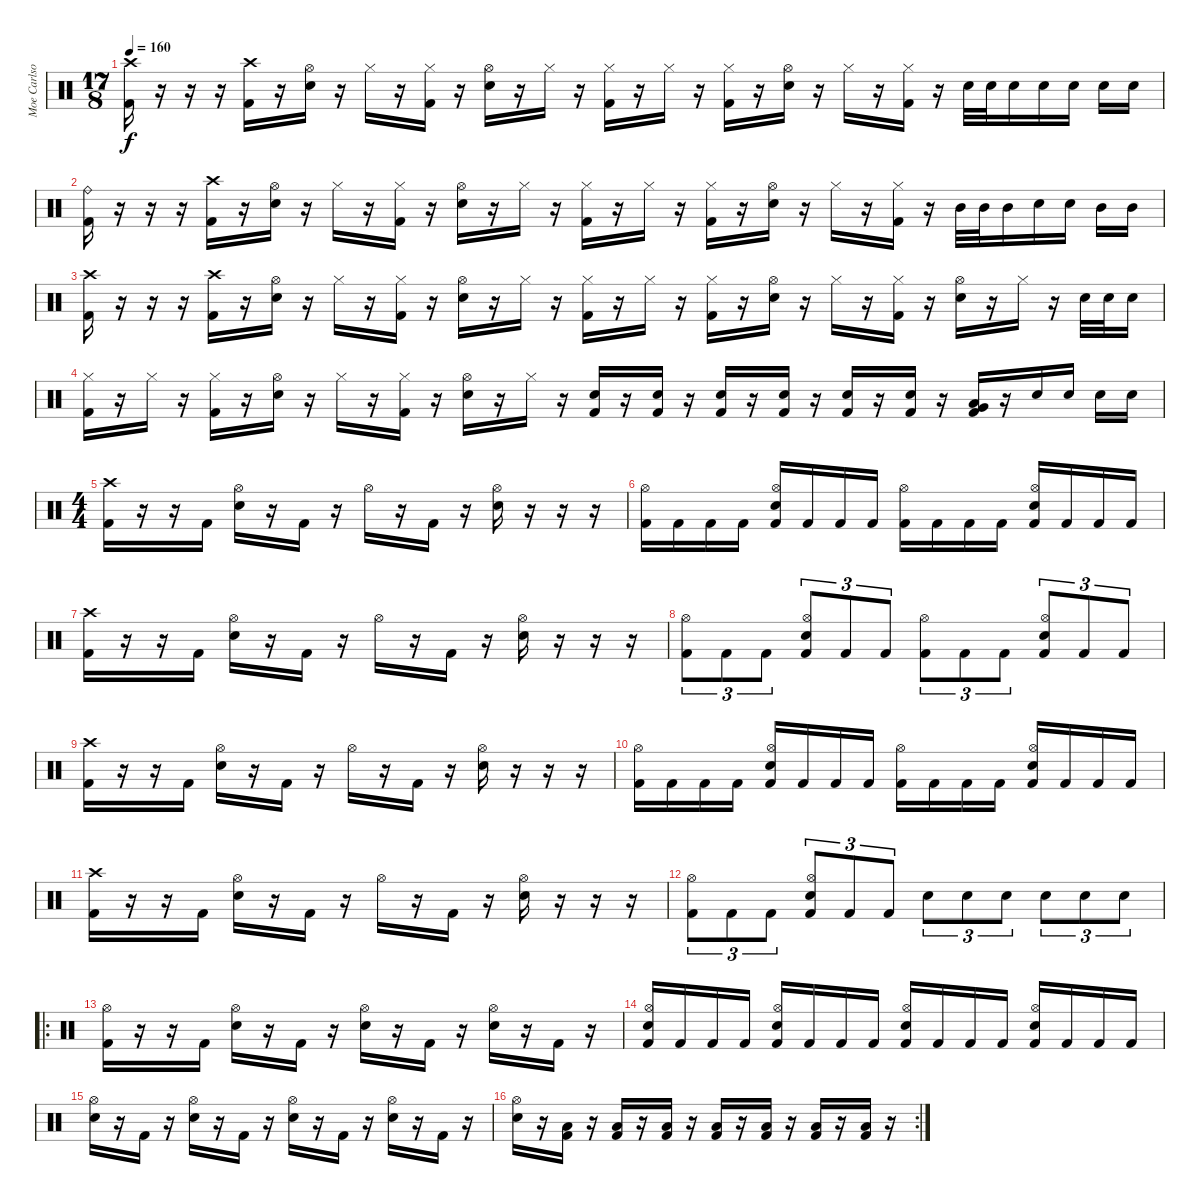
\track ("Moe Carlson" "Moe Carlso") {instrument percussion}
\staff {score}
\articulation defaults
\ts (17 8)
\tempo 160
\clef neutral
\ks c
("Crash high (hit)" "Kick (hit) 2").16{dy f} r.16 r.16 r.16 ("Crash high (hit)" "Kick (hit) 2").16 r.16 ("Hi-Hat (open)" "Electric Snare (hit)").16 r.16 "Hi-Hat (closed)".16 r.16 ("Hi-Hat (closed)" "Kick (hit) 2").16 r.16 ("Hi-Hat (open)" "Electric Snare (hit)").16 r.16 "Hi-Hat (closed)".16 r.16 ("Hi-Hat (closed)" "Kick (hit) 2").16 r.16 "Hi-Hat (closed)".16 r.16 ("Hi-Hat (closed)" "Kick (hit) 2").16 r.16 ("Hi-Hat (open)" "Electric Snare (hit)").16 r.16 "Hi-Hat (closed)".16 r.16 ("Hi-Hat (closed)" "Kick (hit) 2").16 r.16 "Electric Snare (hit)".32 "Electric Snare (hit)".32 "Electric Snare (hit)".16 "Electric Snare (hit)".16 "Electric Snare (hit)".16 "Electric Snare (hit)".16 "Electric Snare (hit)".16 |
("Ride (bell)" "Kick (hit) 2").16 r.16 r.16 r.16 ("Crash high (hit)" "Kick (hit) 2").16 r.16 ("Hi-Hat (open)" "Electric Snare (hit)").16 r.16 "Hi-Hat (closed)".16 r.16 ("Hi-Hat (closed)" "Kick (hit) 2").16 r.16 ("Hi-Hat (open)" "Electric Snare (hit)").16 r.16 "Hi-Hat (closed)".16 r.16 ("Hi-Hat (closed)" "Kick (hit) 2").16 r.16 "Hi-Hat (closed)".16 r.16 ("Hi-Hat (closed)" "Kick (hit) 2").16 r.16 ("Hi-Hat (open)" "Electric Snare (hit)").16 r.16 "Hi-Hat (closed)".16 r.16 ("Hi-Hat (closed)" "Kick (hit) 2").16 r.16 "Mid Tom (hit)".32 "Mid Tom (hit)".32 "Mid Tom (hit)".16 "Electric Snare (hit)".16 "Electric Snare (hit)".16 "Mid Tom (hit)".16 "Mid Tom (hit)".16 |
("Crash high (hit)" "Kick (hit) 2").16 r.16 r.16 r.16 ("Crash high (hit)" "Kick (hit) 2").16 r.16 ("Hi-Hat (open)" "Electric Snare (hit)").16 r.16 "Hi-Hat (closed)".16 r.16 ("Hi-Hat (closed)" "Kick (hit) 2").16 r.16 ("Hi-Hat (open)" "Electric Snare (hit)").16 r.16 "Hi-Hat (closed)".16 r.16 ("Hi-Hat (closed)" "Kick (hit) 2").16 r.16 "Hi-Hat (closed)".16 r.16 ("Hi-Hat (closed)" "Kick (hit) 2").16 r.16 ("Hi-Hat (open)" "Electric Snare (hit)").16 r.16 "Hi-Hat (closed)".16 r.16 ("Hi-Hat (closed)" "Kick (hit) 2").16 r.16 ("Hi-Hat (open)" "Electric Snare (hit)").16 r.16 "Hi-Hat (closed)".16 r.16 "Electric Snare (hit)".32 "Electric Snare (hit)".32 "Electric Snare (hit)".16 |
("Hi-Hat (closed)" "Kick (hit) 2").16 r.16 "Hi-Hat (closed)".16 r.16 ("Hi-Hat (closed)" "Kick (hit) 2").16 r.16 ("Hi-Hat (open)" "Electric Snare (hit)").16 r.16 "Hi-Hat (closed)".16 r.16 ("Hi-Hat (closed)" "Kick (hit) 2").16 r.16 ("Hi-Hat (open)" "Electric Snare (hit)").16 r.16 "Hi-Hat (closed)".16 r.16 ("Electric Snare (hit)" "Kick (hit) 2").16 r.16 ("Electric Snare (hit)" "Kick (hit) 2").16 r.16 ("Electric Snare (hit)" "Kick (hit) 2").16 r.16 ("Electric Snare (hit)" "Kick (hit) 2").16 r.16 ("Electric Snare (hit)" "Kick (hit) 2").16 r.16 ("Electric Snare (hit)" "Kick (hit) 2").16 r.16 ("Low Tom (hit)" "Very Low Tom (hit)" "Kick (hit) 2").16 r.16 "Electric Snare (hit)".16 "Electric Snare (hit)".16 "Electric Snare (hit)".16 "Electric Snare (hit)".16 |
\ts (4 4)
("Crash high (hit)" "Kick (hit) 2").16 r.16 r.16 "Kick (hit) 2".16 ("Hi-Hat (open)" "Electric Snare (hit)").16 r.16 "Kick (hit) 2".16 r.16 "Hi-Hat (open)".16 r.16 "Kick (hit) 2".16 r.16 ("Hi-Hat (open)" "Electric Snare (hit)").16 r.16 r.16 r.16 |
("Hi-Hat (open)" "Kick (hit) 2").16 "Kick (hit) 2".16 "Kick (hit) 2".16 "Kick (hit) 2".16 ("Hi-Hat (open)" "Electric Snare (hit)" "Kick (hit) 2").16 "Kick (hit) 2".16 "Kick (hit) 2".16 "Kick (hit) 2".16 ("Hi-Hat (open)" "Kick (hit) 2").16 "Kick (hit) 2".16 "Kick (hit) 2".16 "Kick (hit) 2".16 ("Hi-Hat (open)" "Electric Snare (hit)" "Kick (hit) 2").16 "Kick (hit) 2".16 "Kick (hit) 2".16 "Kick (hit) 2".16 |
("Crash high (hit)" "Kick (hit) 2").16 r.16 r.16 "Kick (hit) 2".16 ("Hi-Hat (open)" "Electric Snare (hit)").16 r.16 "Kick (hit) 2".16 r.16 "Hi-Hat (open)".16 r.16 "Kick (hit) 2".16 r.16 ("Hi-Hat (open)" "Electric Snare (hit)").16 r.16 r.16 r.16 |
("Hi-Hat (open)" "Kick (hit) 2").8{tu (3 2)} "Kick (hit) 2".8{tu (3 2)} "Kick (hit) 2".8{tu (3 2)} ("Hi-Hat (open)" "Electric Snare (hit)" "Kick (hit) 2").8{tu (3 2)} "Kick (hit) 2".8{tu (3 2)} "Kick (hit) 2".8{tu (3 2)} ("Hi-Hat (open)" "Kick (hit) 2").8{tu (3 2)} "Kick (hit) 2".8{tu (3 2)} "Kick (hit) 2".8{tu (3 2)} ("Hi-Hat (open)" "Electric Snare (hit)" "Kick (hit) 2").8{tu (3 2)} "Kick (hit) 2".8{tu (3 2)} "Kick (hit) 2".8{tu (3 2)} |
("Crash high (hit)" "Kick (hit) 2").16 r.16 r.16 "Kick (hit) 2".16 ("Hi-Hat (open)" "Electric Snare (hit)").16 r.16 "Kick (hit) 2".16 r.16 "Hi-Hat (open)".16 r.16 "Kick (hit) 2".16 r.16 ("Hi-Hat (open)" "Electric Snare (hit)").16 r.16 r.16 r.16 |
("Hi-Hat (open)" "Kick (hit) 2").16 "Kick (hit) 2".16 "Kick (hit) 2".16 "Kick (hit) 2".16 ("Hi-Hat (open)" "Electric Snare (hit)" "Kick (hit) 2").16 "Kick (hit) 2".16 "Kick (hit) 2".16 "Kick (hit) 2".16 ("Hi-Hat (open)" "Kick (hit) 2").16 "Kick (hit) 2".16 "Kick (hit) 2".16 "Kick (hit) 2".16 ("Hi-Hat (open)" "Electric Snare (hit)" "Kick (hit) 2").16 "Kick (hit) 2".16 "Kick (hit) 2".16 "Kick (hit) 2".16 |
("Crash high (hit)" "Kick (hit) 2").16 r.16 r.16 "Kick (hit) 2".16 ("Hi-Hat (open)" "Electric Snare (hit)").16 r.16 "Kick (hit) 2".16 r.16 "Hi-Hat (open)".16 r.16 "Kick (hit) 2".16 r.16 ("Hi-Hat (open)" "Electric Snare (hit)").16 r.16 r.16 r.16 |
("Hi-Hat (open)" "Kick (hit) 2").8{tu (3 2)} "Kick (hit) 2".8{tu (3 2)} "Kick (hit) 2".8{tu (3 2)} ("Hi-Hat (open)" "Electric Snare (hit)" "Kick (hit) 2").8{tu (3 2)} "Kick (hit) 2".8{tu (3 2)} "Kick (hit) 2".8{tu (3 2)} "Electric Snare (hit)".8{tu (3 2)} "Electric Snare (hit)".8{tu (3 2)} "Electric Snare (hit)".8{tu (3 2)} "Electric Snare (hit)".8{tu (3 2)} "Electric Snare (hit)".8{tu (3 2)} "Electric Snare (hit)".8{tu (3 2)} |
\ro
("Hi-Hat (open)" "Kick (hit) 2").16 r.16 r.16 "Kick (hit) 2".16 ("Hi-Hat (open)" "Electric Snare (hit)").16 r.16 "Kick (hit) 2".16 r.16 ("Hi-Hat (open)" "Electric Snare (hit)").16 r.16 "Kick (hit) 2".16 r.16 ("Hi-Hat (open)" "Electric Snare (hit)").16 r.16 "Kick (hit) 2".16 r.16 |
("Hi-Hat (open)" "Electric Snare (hit)" "Kick (hit) 2").16 "Kick (hit) 2".16 "Kick (hit) 2".16 "Kick (hit) 2".16 ("Hi-Hat (open)" "Electric Snare (hit)" "Kick (hit) 2").16 "Kick (hit) 2".16 "Kick (hit) 2".16 "Kick (hit) 2".16 ("Hi-Hat (open)" "Electric Snare (hit)" "Kick (hit) 2").16 "Kick (hit) 2".16 "Kick (hit) 2".16 "Kick (hit) 2".16 ("Hi-Hat (open)" "Electric Snare (hit)" "Kick (hit) 2").16 "Kick (hit) 2".16 "Kick (hit) 2".16 "Kick (hit) 2".16 |
("Hi-Hat (open)" "Electric Snare (hit)").16 r.16 "Kick (hit) 2".16 r.16 ("Hi-Hat (open)" "Electric Snare (hit)").16 r.16 "Kick (hit) 2".16 r.16 ("Hi-Hat (open)" "Electric Snare (hit)").16 r.16 "Kick (hit) 2".16 r.16 ("Hi-Hat (open)" "Electric Snare (hit)").16 r.16 "Kick (hit) 2".16 r.16 |
\rc 2
("Hi-Hat (open)" "Electric Snare (hit)").16 r.16 ("Low Tom (hit)" "Kick (hit) 2").16 r.16 ("Low Tom (hit)" "Kick (hit) 2").16 r.16 ("Low Tom (hit)" "Kick (hit) 2").16 r.16 ("Low Tom (hit)" "Kick (hit) 2").16 r.16 ("Low Tom (hit)" "Kick (hit) 2").16 r.16 ("Low Tom (hit)" "Kick (hit) 2").16 r.16 ("Low Tom (hit)" "Kick (hit) 2").16 r.16
